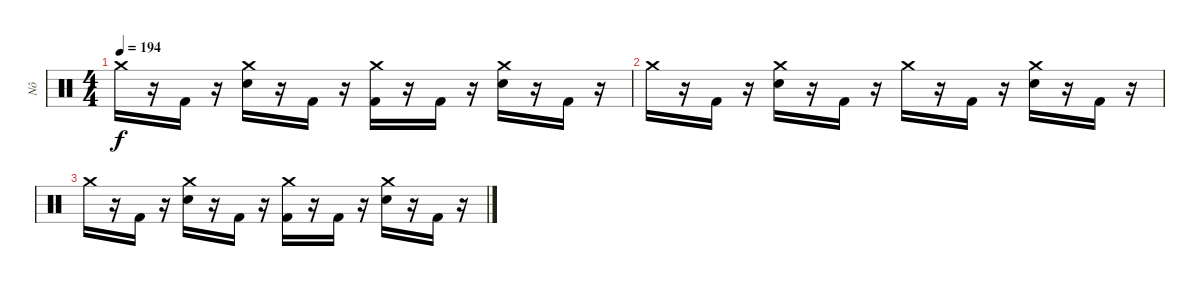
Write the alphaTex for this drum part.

\track ("Nô" "Nô") {instrument percussion}
\staff {score}
\articulation defaults
\ts (4 4)
\tempo 194
\clef neutral
\ks c "Crash medium (hit)".16{dy f}
r.16 "Kick (hit) 2".16 r.16 ("Crash medium (hit)" "Electric Snare (hit)").16 r.16 "Kick (hit) 2".16 r.16 ("Crash medium (hit)" "Kick (hit) 2").16 r.16 "Kick (hit) 2".16 r.16 ("Crash medium (hit)" "Electric Snare (hit)").16 r.16 "Kick (hit) 2".16 r.16 |
"Crash medium (hit)".16 r.16 "Kick (hit) 2".16 r.16 ("Crash medium (hit)" "Electric Snare (hit)").16 r.16 "Kick (hit) 2".16 r.16 "Crash medium (hit)".16 r.16 "Kick (hit) 2".16 r.16 ("Crash medium (hit)" "Electric Snare (hit)").16 r.16 "Kick (hit) 2".16 r.16 |
"Crash medium (hit)".16 r.16 "Kick (hit) 2".16 r.16 ("Crash medium (hit)" "Electric Snare (hit)").16 r.16 "Kick (hit) 2".16 r.16 ("Crash medium (hit)" "Kick (hit) 2").16 r.16 "Kick (hit) 2".16 r.16 ("Crash medium (hit)" "Electric Snare (hit)").16 r.16 "Kick (hit) 2".16 r.16
